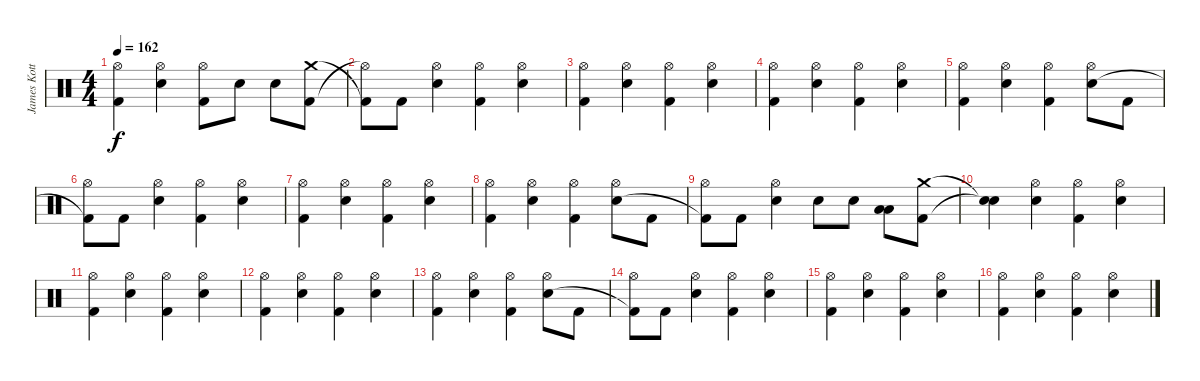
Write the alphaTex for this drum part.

\track ("James Kottak" "James Kott") {instrument percussion}
\staff {score}
\articulation defaults
\ts (4 4)
\tempo 162
\clef neutral
\ks c
("Hi-Hat (open)" "Kick (hit) 2").4{dy f} ("Hi-Hat (open)" "Snare (hit) 2").4 ("Hi-Hat (open)" "Kick (hit) 2").8 "Snare (hit) 2".8 "Snare (hit) 2".8 ("Kick (hit) 2" "Crash medium (hit)").8 |
("Hi-Hat (open)"{t} "Kick (hit) 2"{t}).8 "Kick (hit) 2".8 ("Hi-Hat (open)" "Snare (hit) 2").4 ("Hi-Hat (open)" "Kick (hit) 2").4 ("Hi-Hat (open)" "Snare (hit) 2").4 |
("Hi-Hat (open)" "Kick (hit) 2").4 ("Hi-Hat (open)" "Snare (hit) 2").4 ("Hi-Hat (open)" "Kick (hit) 2").4 ("Hi-Hat (open)" "Snare (hit) 2").4 |
("Hi-Hat (open)" "Kick (hit) 2").4 ("Hi-Hat (open)" "Snare (hit) 2").4 ("Hi-Hat (open)" "Kick (hit) 2").4 ("Hi-Hat (open)" "Snare (hit) 2").4 |
("Hi-Hat (open)" "Kick (hit) 2").4 ("Hi-Hat (open)" "Snare (hit) 2").4 ("Hi-Hat (open)" "Kick (hit) 2").4 ("Hi-Hat (open)" "Snare (hit) 2").8 "Kick (hit) 2".8 |
("Hi-Hat (open)" "Kick (hit) 2"{t}).8 "Kick (hit) 2".8 ("Hi-Hat (open)" "Snare (hit) 2").4 ("Hi-Hat (open)" "Kick (hit) 2").4 ("Hi-Hat (open)" "Snare (hit) 2").4 |
("Hi-Hat (open)" "Kick (hit) 2").4 ("Hi-Hat (open)" "Snare (hit) 2").4 ("Hi-Hat (open)" "Kick (hit) 2").4 ("Hi-Hat (open)" "Snare (hit) 2").4 |
("Hi-Hat (open)" "Kick (hit) 2").4 ("Hi-Hat (open)" "Snare (hit) 2").4 ("Hi-Hat (open)" "Kick (hit) 2").4 ("Hi-Hat (open)" "Snare (hit) 2").8 "Kick (hit) 2".8 |
("Hi-Hat (open)" "Kick (hit) 2"{t}).8 "Kick (hit) 2".8 ("Hi-Hat (open)" "Snare (hit) 2").4 "Snare (hit) 2".8 "Snare (hit) 2".8 ("Low Tom (hit)" "Low Tom (hit)").8{bd 60} ("Crash medium (hit)" "Kick (hit) 2").8 |
("Snare (hit)"{t} "Snare (hit)"{t}).4 ("Hi-Hat (open)" "Snare (hit) 2").4 ("Hi-Hat (open)" "Kick (hit) 2").4 ("Hi-Hat (open)" "Snare (hit) 2").4 |
("Hi-Hat (open)" "Kick (hit) 2").4 ("Hi-Hat (open)" "Snare (hit) 2").4 ("Hi-Hat (open)" "Kick (hit) 2").4 ("Hi-Hat (open)" "Snare (hit) 2").4 |
("Hi-Hat (open)" "Kick (hit) 2").4 ("Hi-Hat (open)" "Snare (hit) 2").4 ("Hi-Hat (open)" "Kick (hit) 2").4 ("Hi-Hat (open)" "Snare (hit) 2").4 |
("Hi-Hat (open)" "Kick (hit) 2").4 ("Hi-Hat (open)" "Snare (hit) 2").4 ("Hi-Hat (open)" "Kick (hit) 2").4 ("Hi-Hat (open)" "Snare (hit) 2").8 "Kick (hit) 2".8 |
("Hi-Hat (open)" "Kick (hit) 2"{t}).8 "Kick (hit) 2".8 ("Hi-Hat (open)" "Snare (hit) 2").4 ("Hi-Hat (open)" "Kick (hit) 2").4 ("Hi-Hat (open)" "Snare (hit) 2").4 |
("Hi-Hat (open)" "Kick (hit) 2").4 ("Hi-Hat (open)" "Snare (hit) 2").4 ("Hi-Hat (open)" "Kick (hit) 2").4 ("Hi-Hat (open)" "Snare (hit) 2").4 |
("Hi-Hat (open)" "Kick (hit) 2").4 ("Hi-Hat (open)" "Snare (hit) 2").4 ("Hi-Hat (open)" "Kick (hit) 2").4 ("Hi-Hat (open)" "Snare (hit) 2").4
